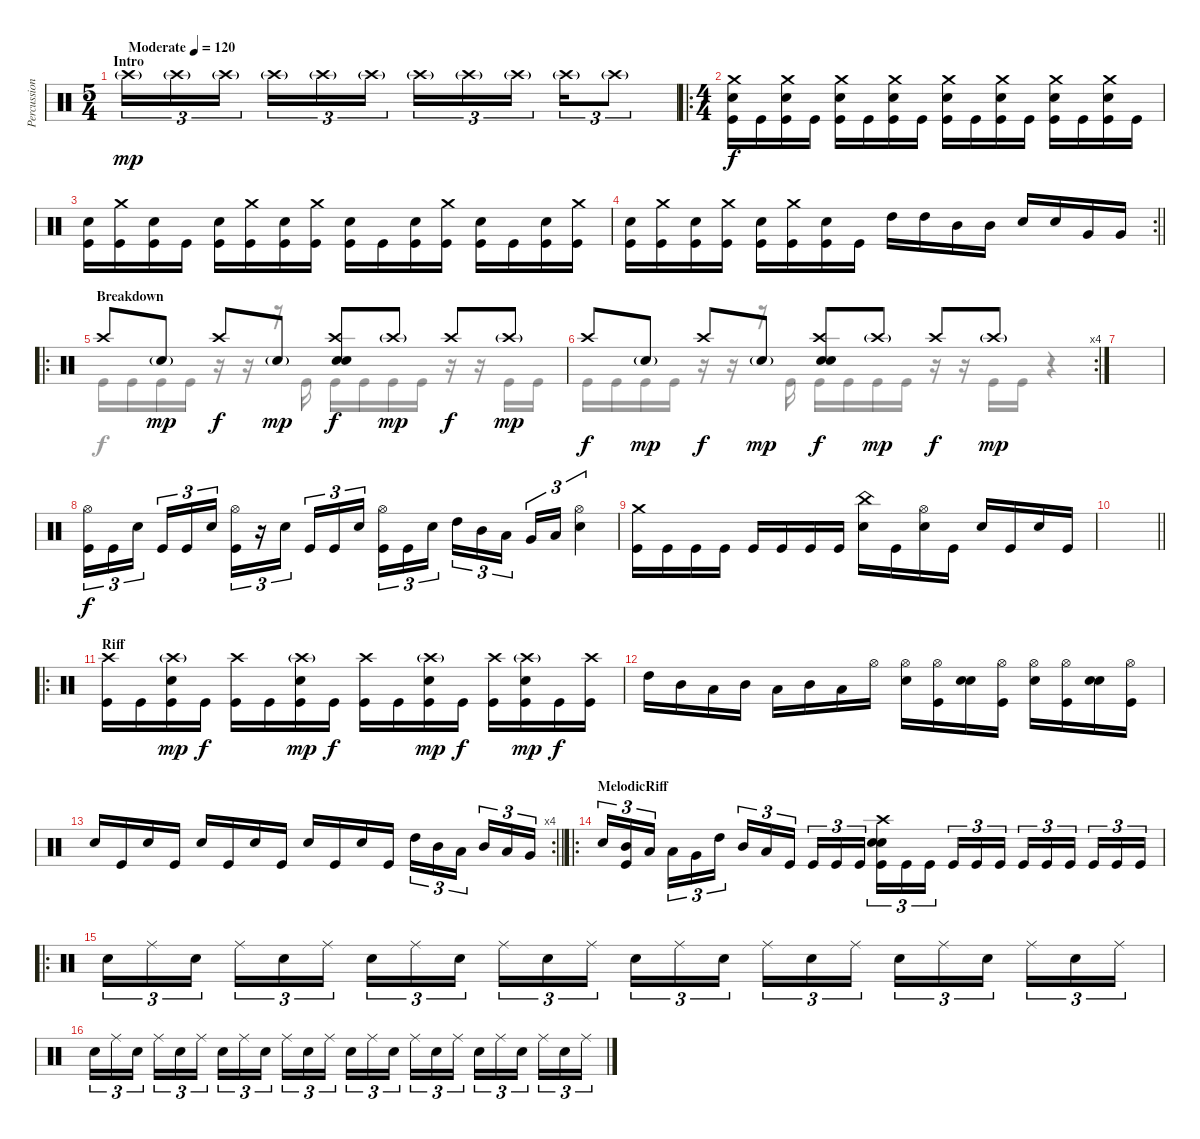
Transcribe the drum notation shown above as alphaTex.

\track ("Percussion" "Percussion") {instrument percussion}
\staff {score}
\articulation defaults
\voice
\ts (5 4)
\section ("" "Intro")
\tempo (120 "Moderate")
\clef neutral
\ks c "Crash high (hit)"{g}.16{tu (3 2) dy mp} "Crash high (hit)"{g}.16{tu (3 2)} "Crash high (hit)"{g}.16{tu (3 2) beam splitsecondary} "Crash high (hit)"{g}.16{tu (3 2)} "Crash high (hit)"{g}.16{tu (3 2)} "Crash high (hit)"{g}.16{tu (3 2)} "Crash high (hit)"{g}.16{tu (3 2)} "Crash high (hit)"{g}.16{tu (3 2)} "Crash high (hit)"{g}.16{tu (3 2) beam splitsecondary} "Crash high (hit)"{g}.16{tu (3 2)} "Crash high (hit)"{g}.8{tu (3 2)}
|
\ro
\ts (4 4)
("Crash medium (hit)" "Electric Snare (hit)" "Kick (hit)").16{dy f} "Kick (hit)".16 ("Crash medium (hit)" "Electric Snare (hit)" "Kick (hit)").16 "Kick (hit)".16 ("Crash medium (hit)" "Electric Snare (hit)" "Kick (hit)").16 "Kick (hit)".16 ("Crash medium (hit)" "Electric Snare (hit)" "Kick (hit)").16 "Kick (hit)".16 ("Crash medium (hit)" "Electric Snare (hit)" "Kick (hit)").16 "Kick (hit)".16 ("Crash medium (hit)" "Electric Snare (hit)" "Kick (hit)").16 "Kick (hit)".16 ("Crash medium (hit)" "Electric Snare (hit)" "Kick (hit)").16 "Kick (hit)".16 ("Crash medium (hit)" "Electric Snare (hit)" "Kick (hit)").16 "Kick (hit)".16 |
("Electric Snare (hit)" "Kick (hit)").16 ("Crash medium (hit)" "Kick (hit)").16 ("Electric Snare (hit)" "Kick (hit)").16 "Kick (hit)".16 ("Electric Snare (hit)" "Kick (hit)").16 ("Crash medium (hit)" "Kick (hit)").16 ("Electric Snare (hit)" "Kick (hit)").16 ("Crash medium (hit)" "Kick (hit)").16 ("Electric Snare (hit)" "Kick (hit)").16 "Kick (hit)".16 ("Electric Snare (hit)" "Kick (hit)").16 ("Crash medium (hit)" "Kick (hit)").16 ("Electric Snare (hit)" "Kick (hit)").16 "Kick (hit)".16 ("Electric Snare (hit)" "Kick (hit)").16 ("Crash medium (hit)" "Kick (hit)").16 |
\rc 2
\barLineRight lightlight
("Electric Snare (hit)" "Kick (hit)").16 ("Crash medium (hit)" "Kick (hit)").16 ("Electric Snare (hit)" "Kick (hit)").16 ("Crash medium (hit)" "Kick (hit)").16 ("Electric Snare (hit)" "Kick (hit)").16 ("Crash medium (hit)" "Kick (hit)").16 ("Electric Snare (hit)" "Kick (hit)").16 "Kick (hit)".16 "High Tom (hit)".16 "High Tom (hit)".16 "Mid Tom (hit)".16 "Mid Tom (hit)".16 "Electric Snare (hit)".16 "Electric Snare (hit)".16 "Very Low Tom (hit)".16 "Very Low Tom (hit)".16 |
\ro
\section ("" "Breakdown")
"Crash high (hit)".8 "Snare (hit)"{g}.8{dy mp} "Crash high (hit)".8{dy f} "Snare (hit)"{g}.8{dy mp} ("Crash high (hit)" "Electric Snare (hit)" "Electric Snare (hit)").8{dy f} "Crash high (hit)"{g}.8{dy mp} "Crash high (hit)".8{dy f} "Crash high (hit)"{g}.8{dy mp} |
\rc 4 "Crash high (hit)".8{dy f} "Snare (hit)"{g}.8{dy mp} "Crash high (hit)".8{dy f} "Snare (hit)"{g}.8{dy mp}
("Crash high (hit)" "Electric Snare (hit)" "Electric Snare (hit)").8{dy f} "Crash high (hit)"{g}.8{dy mp} "Crash high (hit)".8{dy f} "Crash high (hit)"{g}.8{dy mp} |
|
("Hi-Hat (open)" "Kick (hit)").16{tu (3 2) dy f} "Kick (hit)".16{tu (3 2)} "Electric Snare (hit)".16{tu (3 2) beam splitsecondary} "Kick (hit)".16{tu (3 2)} "Kick (hit)".16{tu (3 2)} "Electric Snare (hit)".16{tu (3 2)} ("Hi-Hat (open)" "Kick (hit)").16{tu (3 2)} r.16{tu (3 2)} "Electric Snare (hit)".16{tu (3 2) beam splitsecondary} "Kick (hit)".16{tu (3 2)} "Kick (hit)".16{tu (3 2)} "Electric Snare (hit)".16{tu (3 2)} ("Hi-Hat (open)" "Kick (hit)").16{tu (3 2)} "Kick (hit)".16{tu (3 2)} "Electric Snare (hit)".16{tu (3 2) beam splitsecondary} "High Tom (hit)".16{tu (3 2)} "Mid Tom (hit)".16{tu (3 2)} "Low Tom (hit)".16{tu (3 2)} "Very Low Tom (hit)".16{tu (3 2)} "Low Tom (hit)".16{tu (3 2)} ("Electric Snare (hit)" "Hi-Hat (open)").4{tu (3 2)} |
("Crash medium (hit)" "Kick (hit)").16 "Kick (hit)".16 "Kick (hit)".16 "Kick (hit)".16 "Kick (hit)".16 "Kick (hit)".16 "Kick (hit)".16 "Kick (hit)".16 ("China (hit)" "Electric Snare (hit)").16 "Kick (hit)".16 ("Hi-Hat (open)" "Electric Snare (hit)").16 "Kick (hit)".16 "Electric Snare (hit)".16 "Kick (hit)".16 "Electric Snare (hit)".16 "Kick (hit)".16 |
\barLineRight lightlight
|
\ro
\section ("" "Riff")
("Crash high (hit)" "Kick (hit)").16 "Kick (hit)".16 ("Crash high (hit)"{g} "Electric Snare (hit)" "Kick (hit)").16{dy mp} "Kick (hit)".16{dy f} ("Crash high (hit)" "Kick (hit)").16 "Kick (hit)".16 ("Crash high (hit)"{g} "Electric Snare (hit)" "Kick (hit)").16{dy mp} "Kick (hit)".16{dy f} ("Crash high (hit)" "Kick (hit)").16 "Kick (hit)".16 ("Crash high (hit)"{g} "Electric Snare (hit)" "Kick (hit)").16{dy mp} "Kick (hit)".16{dy f} ("Crash high (hit)" "Kick (hit)").16 ("Crash high (hit)"{g} "Electric Snare (hit)" "Kick (hit)").16{dy mp} "Kick (hit)".16{dy f} ("Crash high (hit)" "Kick (hit)").16 |
"High Tom (hit)".16 "Mid Tom (hit)".16 "Low Tom (hit)".16 "Mid Tom (hit)".16 "Low Tom (hit)".16 "Mid Tom (hit)".16 "Low Tom (hit)".16 "Hi-Hat (open)".16 ("Hi-Hat (open)" "Electric Snare (hit)").16 ("Hi-Hat (open)" "Kick (hit)").16 ("Snare (hit)" "Electric Snare (hit)").16 ("Hi-Hat (open)" "Kick (hit)").16 ("Hi-Hat (open)" "Electric Snare (hit)").16 ("Hi-Hat (open)" "Kick (hit)").16 ("Snare (hit)" "Electric Snare (hit)").16 ("Hi-Hat (open)" "Kick (hit)").16 |
\rc 4
\barLineRight lightlight "Electric Snare (hit)".16 "Kick (hit)".16 "Electric Snare (hit)".16 "Kick (hit)".16 "Electric Snare (hit)".16 "Kick (hit)".16 "Electric Snare (hit)".16 "Kick (hit)".16 "Electric Snare (hit)".16 "Kick (hit)".16 "Electric Snare (hit)".16 "Kick (hit)".16 "High Tom (hit)".16{tu (3 2)} "Mid Tom (hit)".16{tu (3 2)} "Low Tom (hit)".16{tu (3 2) beam splitsecondary} "Mid Tom (hit)".16{tu (3 2)} "Low Tom (hit)".16{tu (3 2)} "Very Low Tom (hit)".16{tu (3 2)}
|
\ro
\section ("" "MelodicRiff")
"Electric Snare (hit)".16{tu (3 2)} ("Mid Tom (hit)" "Kick (hit)").16{tu (3 2)} "Low Tom (hit)".16{tu (3 2) beam splitsecondary} "Low Tom (hit)".16{tu (3 2)} "Very Low Tom (hit)".16{tu (3 2)} "High Tom (hit)".16{tu (3 2)} "Mid Tom (hit)".16{tu (3 2)} "Low Tom (hit)".16{tu (3 2)} "Kick (hit)".16{tu (3 2) beam splitsecondary} "Kick (hit)".16{tu (3 2)} "Kick (hit)".16{tu (3 2)} "Kick (hit)".16{tu (3 2)} ("Crash high (hit)" "Electric Snare (hit)" "Electric Snare (hit)" "Kick (hit)").16{tu (3 2)} "Kick (hit)".16{tu (3 2)} "Kick (hit)".16{tu (3 2) beam splitsecondary} "Kick (hit)".16{tu (3 2)} "Kick (hit)".16{tu (3 2)} "Kick (hit)".16{tu (3 2)} "Kick (hit)".16{tu (3 2)} "Kick (hit)".16{tu (3 2)} "Kick (hit)".16{tu (3 2) beam splitsecondary} "Kick (hit)".16{tu (3 2)} "Kick (hit)".16{tu (3 2)} "Kick (hit)".16{tu (3 2)} |
\ro "Electric Snare (hit)".16{tu (3 2)} "Ride (middle)".16{tu (3 2)} "Electric Snare (hit)".16{tu (3 2) beam splitsecondary} "Ride (middle)".16{tu (3 2)} "Electric Snare (hit)".16{tu (3 2)} "Ride (middle)".16{tu (3 2)} "Electric Snare (hit)".16{tu (3 2)} "Ride (middle)".16{tu (3 2)} "Electric Snare (hit)".16{tu (3 2) beam splitsecondary} "Ride (middle)".16{tu (3 2)} "Electric Snare (hit)".16{tu (3 2)} "Ride (middle)".16{tu (3 2)} "Electric Snare (hit)".16{tu (3 2)} "Ride (middle)".16{tu (3 2)} "Electric Snare (hit)".16{tu (3 2) beam splitsecondary} "Ride (middle)".16{tu (3 2)} "Electric Snare (hit)".16{tu (3 2)} "Ride (middle)".16{tu (3 2)} "Electric Snare (hit)".16{tu (3 2)} "Ride (middle)".16{tu (3 2)} "Electric Snare (hit)".16{tu (3 2) beam splitsecondary} "Ride (middle)".16{tu (3 2)} "Electric Snare (hit)".16{tu (3 2)} "Ride (middle)".16{tu (3 2)}
|
"Electric Snare (hit)".16{tu (3 2)} "Ride (middle)".16{tu (3 2)} "Electric Snare (hit)".16{tu (3 2) beam splitsecondary} "Ride (middle)".16{tu (3 2)} "Electric Snare (hit)".16{tu (3 2)} "Ride (middle)".16{tu (3 2)} "Electric Snare (hit)".16{tu (3 2)} "Ride (middle)".16{tu (3 2)} "Electric Snare (hit)".16{tu (3 2) beam splitsecondary} "Ride (middle)".16{tu (3 2)} "Electric Snare (hit)".16{tu (3 2)} "Ride (middle)".16{tu (3 2)} "Electric Snare (hit)".16{tu (3 2)} "Ride (middle)".16{tu (3 2)} "Electric Snare (hit)".16{tu (3 2) beam splitsecondary} "Ride (middle)".16{tu (3 2)} "Electric Snare (hit)".16{tu (3 2)} "Ride (middle)".16{tu (3 2)} "Electric Snare (hit)".16{tu (3 2)} "Ride (middle)".16{tu (3 2)} "Electric Snare (hit)".16{tu (3 2) beam splitsecondary} "Ride (middle)".16{tu (3 2)} "Electric Snare (hit)".16{tu (3 2)} "Ride (middle)".16{tu (3 2)}
\voice
\clef neutral
\ottava regular
\simile none
\ks c
|
|
|
\barLineRight lightlight
|
"Kick (hit)".16 "Kick (hit)".16 "Kick (hit)".16 "Kick (hit)".16 r.16 r.16 r.16 "Kick (hit)".16 "Kick (hit)".16 "Kick (hit)".16 "Kick (hit)".16 "Kick (hit)".16 r.16 r.16 "Kick (hit)".16 "Kick (hit)".16 |
"Kick (hit)".16 "Kick (hit)".16 "Kick (hit)".16 "Kick (hit)".16 r.16 r.16 r.16 "Kick (hit)".16 "Kick (hit)".16 "Kick (hit)".16 "Kick (hit)".16 "Kick (hit)".16 r.16 r.16 "Kick (hit)".16 "Kick (hit)".16 r.4 |
|
|
|
\barLineRight lightlight
|
|
|
\barLineRight lightlight
|
|
|
